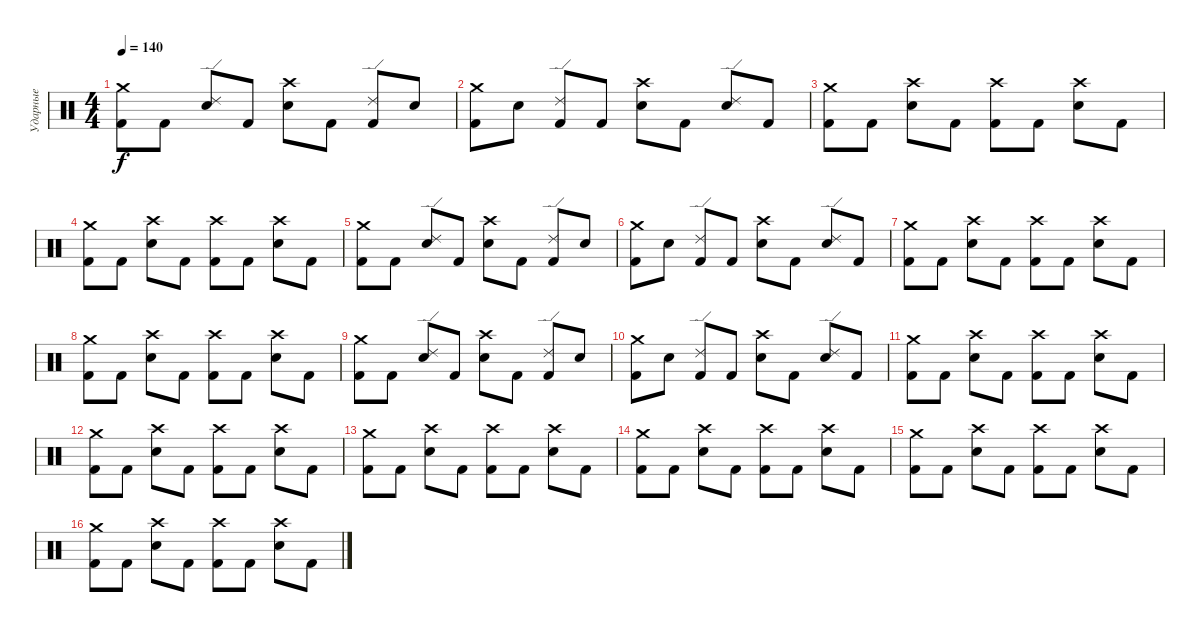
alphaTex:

\track ("Ударные" "Ударные") {instrument percussion}
\staff {score}
\articulation defaults
\ts (4 4)
\tempo 140
\clef neutral
\ks c
("Crash medium (hit)" "Kick (hit) 2").8{dy f} "Kick (hit) 2".8 ("Ride (edge) 2" "Electric Snare (hit)").8 "Kick (hit) 2".8 ("Crash high (hit)" "Electric Snare (hit)").8 "Kick (hit) 2".8 ("Ride (edge) 2" "Kick (hit) 2").8 "Electric Snare (hit)".8 |
("Crash medium (hit)" "Kick (hit) 2").8 "Electric Snare (hit)".8 ("Ride (edge) 2" "Kick (hit) 2").8 "Kick (hit) 2".8 ("Crash high (hit)" "Electric Snare (hit)").8 "Kick (hit) 2".8 ("Ride (edge) 2" "Electric Snare (hit)").8 "Kick (hit) 2".8 |
("Crash medium (hit)" "Kick (hit) 2").8 "Kick (hit) 2".8 ("Crash high (hit)" "Electric Snare (hit)").8 "Kick (hit) 2".8 ("Crash high (hit)" "Kick (hit) 2").8 "Kick (hit) 2".8 ("Crash high (hit)" "Electric Snare (hit)").8 "Kick (hit) 2".8 |
("Crash medium (hit)" "Kick (hit) 2").8 "Kick (hit) 2".8 ("Crash high (hit)" "Electric Snare (hit)").8 "Kick (hit) 2".8 ("Crash high (hit)" "Kick (hit) 2").8 "Kick (hit) 2".8 ("Crash high (hit)" "Electric Snare (hit)").8 "Kick (hit) 2".8 |
("Crash medium (hit)" "Kick (hit) 2").8 "Kick (hit) 2".8 ("Ride (edge) 2" "Electric Snare (hit)").8 "Kick (hit) 2".8 ("Crash high (hit)" "Electric Snare (hit)").8 "Kick (hit) 2".8 ("Ride (edge) 2" "Kick (hit) 2").8 "Electric Snare (hit)".8 |
("Crash medium (hit)" "Kick (hit) 2").8 "Electric Snare (hit)".8 ("Ride (edge) 2" "Kick (hit) 2").8 "Kick (hit) 2".8 ("Crash high (hit)" "Electric Snare (hit)").8 "Kick (hit) 2".8 ("Ride (edge) 2" "Electric Snare (hit)").8 "Kick (hit) 2".8 |
("Crash medium (hit)" "Kick (hit) 2").8 "Kick (hit) 2".8 ("Crash high (hit)" "Electric Snare (hit)").8 "Kick (hit) 2".8 ("Crash high (hit)" "Kick (hit) 2").8 "Kick (hit) 2".8 ("Crash high (hit)" "Electric Snare (hit)").8 "Kick (hit) 2".8 |
("Crash medium (hit)" "Kick (hit) 2").8 "Kick (hit) 2".8 ("Crash high (hit)" "Electric Snare (hit)").8 "Kick (hit) 2".8 ("Crash high (hit)" "Kick (hit) 2").8 "Kick (hit) 2".8 ("Crash high (hit)" "Electric Snare (hit)").8 "Kick (hit) 2".8 |
("Crash medium (hit)" "Kick (hit) 2").8 "Kick (hit) 2".8 ("Ride (edge) 2" "Electric Snare (hit)").8 "Kick (hit) 2".8 ("Crash high (hit)" "Electric Snare (hit)").8 "Kick (hit) 2".8 ("Ride (edge) 2" "Kick (hit) 2").8 "Electric Snare (hit)".8 |
("Crash medium (hit)" "Kick (hit) 2").8 "Electric Snare (hit)".8 ("Ride (edge) 2" "Kick (hit) 2").8 "Kick (hit) 2".8 ("Crash high (hit)" "Electric Snare (hit)").8 "Kick (hit) 2".8 ("Ride (edge) 2" "Electric Snare (hit)").8 "Kick (hit) 2".8 |
("Crash medium (hit)" "Kick (hit) 2").8 "Kick (hit) 2".8 ("Crash high (hit)" "Electric Snare (hit)").8 "Kick (hit) 2".8 ("Crash high (hit)" "Kick (hit) 2").8 "Kick (hit) 2".8 ("Crash high (hit)" "Electric Snare (hit)").8 "Kick (hit) 2".8 |
("Crash medium (hit)" "Kick (hit) 2").8 "Kick (hit) 2".8 ("Crash high (hit)" "Electric Snare (hit)").8 "Kick (hit) 2".8 ("Crash high (hit)" "Kick (hit) 2").8 "Kick (hit) 2".8 ("Crash high (hit)" "Electric Snare (hit)").8 "Kick (hit) 2".8 |
("Crash medium (hit)" "Kick (hit) 2").8 "Kick (hit) 2".8 ("Crash high (hit)" "Electric Snare (hit)").8 "Kick (hit) 2".8 ("Crash high (hit)" "Kick (hit) 2").8 "Kick (hit) 2".8 ("Crash high (hit)" "Electric Snare (hit)").8 "Kick (hit) 2".8 |
("Crash medium (hit)" "Kick (hit) 2").8 "Kick (hit) 2".8 ("Crash high (hit)" "Electric Snare (hit)").8 "Kick (hit) 2".8 ("Crash high (hit)" "Kick (hit) 2").8 "Kick (hit) 2".8 ("Crash high (hit)" "Electric Snare (hit)").8 "Kick (hit) 2".8 |
("Crash medium (hit)" "Kick (hit) 2").8 "Kick (hit) 2".8 ("Crash high (hit)" "Electric Snare (hit)").8 "Kick (hit) 2".8 ("Crash high (hit)" "Kick (hit) 2").8 "Kick (hit) 2".8 ("Crash high (hit)" "Electric Snare (hit)").8 "Kick (hit) 2".8 |
("Crash medium (hit)" "Kick (hit) 2").8 "Kick (hit) 2".8 ("Crash high (hit)" "Electric Snare (hit)").8 "Kick (hit) 2".8 ("Crash high (hit)" "Kick (hit) 2").8 "Kick (hit) 2".8 ("Crash high (hit)" "Electric Snare (hit)").8 "Kick (hit) 2".8
